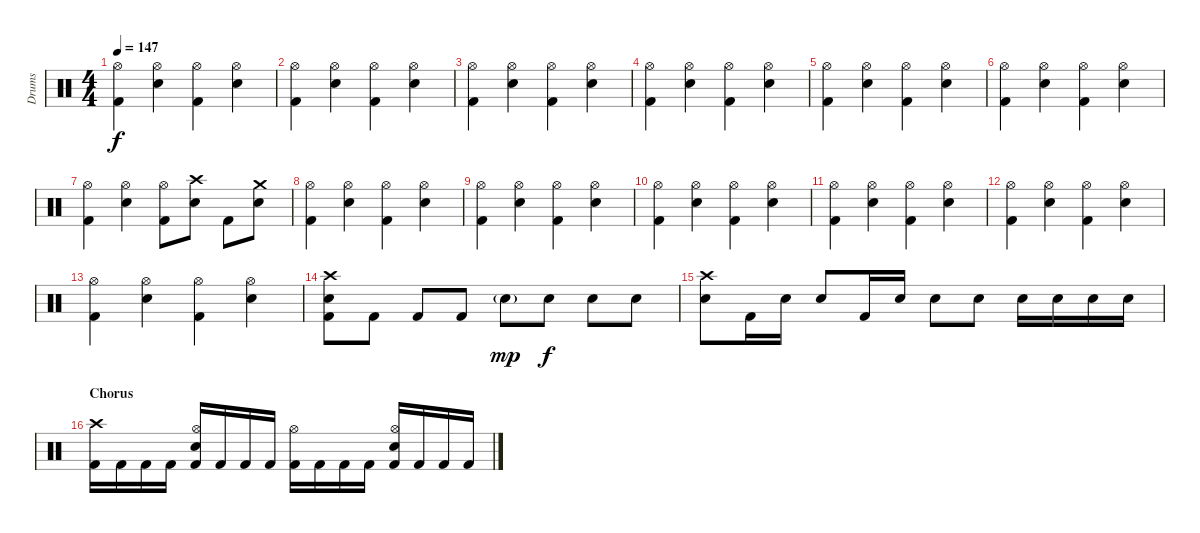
\track ("Drums" "Drums") {instrument percussion}
\staff {score}
\articulation defaults
\ts (4 4)
\tempo 147
\clef neutral
\ks c
("Kick (hit) 2" "Hi-Hat (open)").4{dy f} ("Electric Snare (hit)" "Hi-Hat (open)").4 ("Kick (hit) 2" "Hi-Hat (open)").4 ("Electric Snare (hit)" "Hi-Hat (open)").4 |
("Kick (hit) 2" "Hi-Hat (open)").4 ("Electric Snare (hit)" "Hi-Hat (open)").4 ("Kick (hit) 2" "Hi-Hat (open)").4 ("Electric Snare (hit)" "Hi-Hat (open)").4 |
("Kick (hit) 2" "Hi-Hat (open)").4 ("Electric Snare (hit)" "Hi-Hat (open)").4 ("Kick (hit) 2" "Hi-Hat (open)").4 ("Electric Snare (hit)" "Hi-Hat (open)").4 |
("Kick (hit) 2" "Hi-Hat (open)").4 ("Electric Snare (hit)" "Hi-Hat (open)").4 ("Kick (hit) 2" "Hi-Hat (open)").4 ("Electric Snare (hit)" "Hi-Hat (open)").4 |
("Kick (hit) 2" "Hi-Hat (open)").4 ("Electric Snare (hit)" "Hi-Hat (open)").4 ("Kick (hit) 2" "Hi-Hat (open)").4 ("Electric Snare (hit)" "Hi-Hat (open)").4 |
("Kick (hit) 2" "Hi-Hat (open)").4 ("Electric Snare (hit)" "Hi-Hat (open)").4 ("Kick (hit) 2" "Hi-Hat (open)").4 ("Electric Snare (hit)" "Hi-Hat (open)").4 |
("Kick (hit) 2" "Hi-Hat (open)").4 ("Electric Snare (hit)" "Hi-Hat (open)").4 ("Kick (hit) 2" "Hi-Hat (open)").8 ("Electric Snare (hit)" "Crash high (hit)").8 "Kick (hit) 2".8 ("Electric Snare (hit)" "Crash medium (hit)").8 |
("Kick (hit) 2" "Hi-Hat (open)").4 ("Electric Snare (hit)" "Hi-Hat (open)").4 ("Kick (hit) 2" "Hi-Hat (open)").4 ("Electric Snare (hit)" "Hi-Hat (open)").4 |
("Kick (hit) 2" "Hi-Hat (open)").4 ("Electric Snare (hit)" "Hi-Hat (open)").4 ("Kick (hit) 2" "Hi-Hat (open)").4 ("Electric Snare (hit)" "Hi-Hat (open)").4 |
("Kick (hit) 2" "Hi-Hat (open)").4 ("Electric Snare (hit)" "Hi-Hat (open)").4 ("Kick (hit) 2" "Hi-Hat (open)").4 ("Electric Snare (hit)" "Hi-Hat (open)").4 |
("Kick (hit) 2" "Hi-Hat (open)").4 ("Electric Snare (hit)" "Hi-Hat (open)").4 ("Kick (hit) 2" "Hi-Hat (open)").4 ("Electric Snare (hit)" "Hi-Hat (open)").4 |
("Kick (hit) 2" "Hi-Hat (open)").4 ("Electric Snare (hit)" "Hi-Hat (open)").4 ("Kick (hit) 2" "Hi-Hat (open)").4 ("Electric Snare (hit)" "Hi-Hat (open)").4 |
("Kick (hit) 2" "Hi-Hat (open)").4 ("Electric Snare (hit)" "Hi-Hat (open)").4 ("Kick (hit) 2" "Hi-Hat (open)").4 ("Electric Snare (hit)" "Hi-Hat (open)").4 |
("Kick (hit) 2" "Electric Snare (hit)" "Crash high (hit)").8 "Kick (hit) 2".8 "Kick (hit) 2".8 "Kick (hit) 2".8 "Electric Snare (hit)"{g}.8{dy mp} "Electric Snare (hit)".8{dy f} "Electric Snare (hit)".8 "Electric Snare (hit)".8 |
("Electric Snare (hit)" "Crash high (hit)").8 "Kick (hit) 2".16 "Electric Snare (hit)".16 "Electric Snare (hit)".8 "Kick (hit) 2".16 "Electric Snare (hit)".16 "Electric Snare (hit)".8 "Electric Snare (hit)".8 "Electric Snare (hit)".16 "Electric Snare (hit)".16 "Electric Snare (hit)".16 "Electric Snare (hit)".16 |
\section ("" "Chorus")
("Kick (hit) 2" "Crash high (hit)").16 "Kick (hit) 2".16 "Kick (hit) 2".16 "Kick (hit) 2".16 ("Kick (hit) 2" "Electric Snare (hit)" "Hi-Hat (open)").16 "Kick (hit) 2".16 "Kick (hit) 2".16 "Kick (hit) 2".16 ("Kick (hit) 2" "Hi-Hat (open)").16 "Kick (hit) 2".16 "Kick (hit) 2".16 "Kick (hit) 2".16 ("Kick (hit) 2" "Electric Snare (hit)" "Hi-Hat (open)").16 "Kick (hit) 2".16 "Kick (hit) 2".16 "Kick (hit) 2".16
